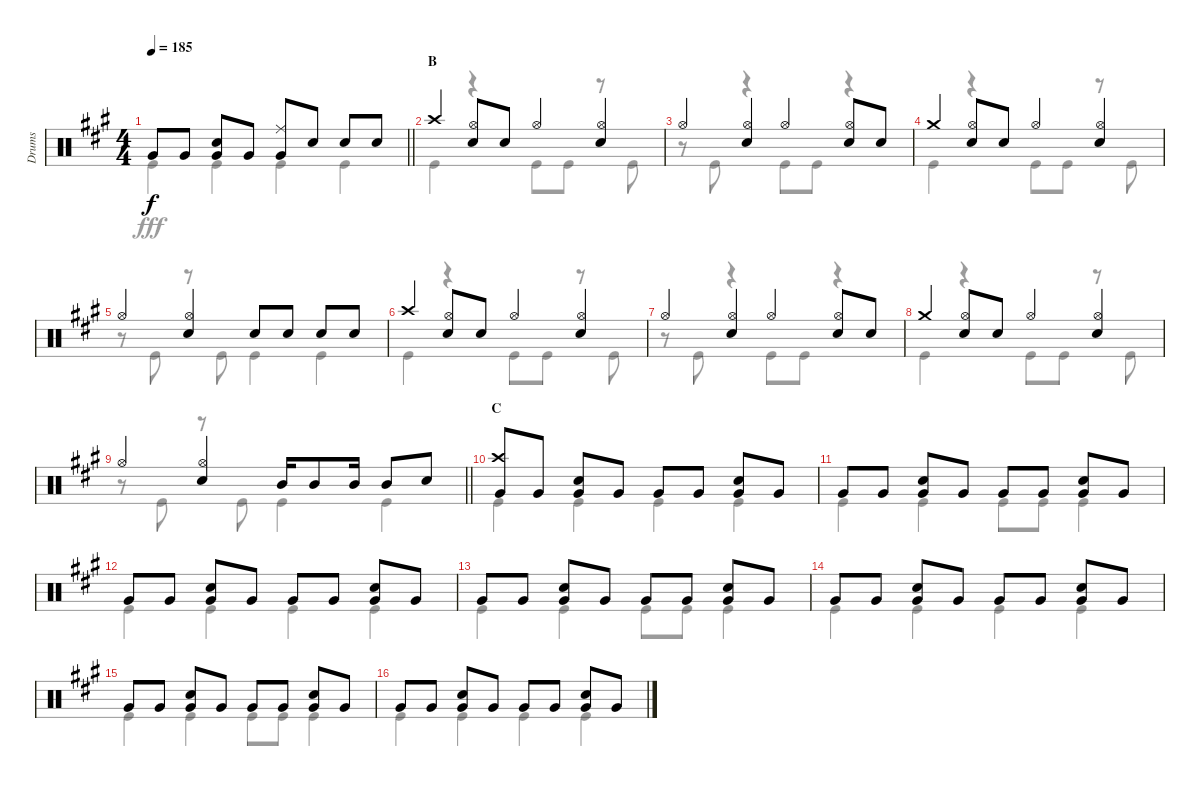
\track ("Drums" "Drums") {instrument percussion}
\staff {score}
\articulation defaults
\voice
\ts (4 4)
\tempo 185
\clef neutral
\barLineRight lightlight
\ks a "Very Low Tom (hit)".8{dy f} "Very Low Tom (hit)".8
("Snare (hit) 2" "Very Low Tom (hit)").8 "Very Low Tom (hit)".8 ("Ride (middle)" "Very Low Tom (hit)").8 "Snare (hit) 2".8 "Snare (hit) 2".8 "Snare (hit) 2".8 |
\section ("" "B")
"Crash high (hit)".4 ("Hi-Hat (open)" "Snare (hit) 2").8 "Snare (hit) 2".8 "Hi-Hat (open)".4 ("Hi-Hat (open)" "Snare (hit) 2").4 |
"Hi-Hat (open)".4 ("Hi-Hat (open)" "Snare (hit) 2").4 "Hi-Hat (open)".4 ("Hi-Hat (open)" "Snare (hit) 2").8 "Snare (hit) 2".8 |
"Crash medium (hit)".4 ("Hi-Hat (open)" "Snare (hit) 2").8 "Snare (hit) 2".8 "Hi-Hat (open)".4 ("Hi-Hat (open)" "Snare (hit) 2").4 |
"Hi-Hat (open)".4 ("Hi-Hat (open)" "Snare (hit) 2").4 "Snare (hit) 2".8 "Snare (hit) 2".8 "Snare (hit) 2".8 "Snare (hit) 2".8 |
"Crash high (hit)".4 ("Hi-Hat (open)" "Snare (hit) 2").8 "Snare (hit) 2".8 "Hi-Hat (open)".4 ("Hi-Hat (open)" "Snare (hit) 2").4 |
"Hi-Hat (open)".4 ("Hi-Hat (open)" "Snare (hit) 2").4 "Hi-Hat (open)".4 ("Hi-Hat (open)" "Snare (hit) 2").8 "Snare (hit) 2".8 |
"Crash medium (hit)".4 ("Hi-Hat (open)" "Snare (hit) 2").8 "Snare (hit) 2".8 "Hi-Hat (open)".4 ("Hi-Hat (open)" "Snare (hit) 2").4 |
\barLineRight lightlight "Hi-Hat (open)".4
("Hi-Hat (open)" "Snare (hit) 2").4 "Mid Tom (hit)".16 "Mid Tom (hit)".8 "Mid Tom (hit)".16 "Mid Tom (hit)".8 "Snare (hit) 2".8 |
\section ("" "C")
("Crash high (hit)" "Very Low Tom (hit)").8 "Very Low Tom (hit)".8 ("Snare (hit) 2" "Very Low Tom (hit)").8 "Very Low Tom (hit)".8 "Very Low Tom (hit)".8 "Very Low Tom (hit)".8 ("Snare (hit) 2" "Very Low Tom (hit)").8 "Very Low Tom (hit)".8 |
"Very Low Tom (hit)".8 "Very Low Tom (hit)".8 ("Snare (hit) 2" "Very Low Tom (hit)").8 "Very Low Tom (hit)".8 "Very Low Tom (hit)".8 "Very Low Tom (hit)".8 ("Snare (hit) 2" "Very Low Tom (hit)").8 "Very Low Tom (hit)".8 |
"Very Low Tom (hit)".8 "Very Low Tom (hit)".8 ("Snare (hit) 2" "Very Low Tom (hit)").8 "Very Low Tom (hit)".8 "Very Low Tom (hit)".8 "Very Low Tom (hit)".8 ("Snare (hit) 2" "Very Low Tom (hit)").8 "Very Low Tom (hit)".8 |
"Very Low Tom (hit)".8 "Very Low Tom (hit)".8 ("Snare (hit) 2" "Very Low Tom (hit)").8 "Very Low Tom (hit)".8 "Very Low Tom (hit)".8 "Very Low Tom (hit)".8 ("Snare (hit) 2" "Very Low Tom (hit)").8 "Very Low Tom (hit)".8 |
"Very Low Tom (hit)".8 "Very Low Tom (hit)".8 ("Snare (hit) 2" "Very Low Tom (hit)").8 "Very Low Tom (hit)".8 "Very Low Tom (hit)".8 "Very Low Tom (hit)".8 ("Snare (hit) 2" "Very Low Tom (hit)").8 "Very Low Tom (hit)".8 |
"Very Low Tom (hit)".8 "Very Low Tom (hit)".8 ("Snare (hit) 2" "Very Low Tom (hit)").8 "Very Low Tom (hit)".8 "Very Low Tom (hit)".8 "Very Low Tom (hit)".8 ("Snare (hit) 2" "Very Low Tom (hit)").8 "Very Low Tom (hit)".8 |
"Very Low Tom (hit)".8 "Very Low Tom (hit)".8 ("Snare (hit) 2" "Very Low Tom (hit)").8 "Very Low Tom (hit)".8 "Very Low Tom (hit)".8 "Very Low Tom (hit)".8 ("Snare (hit) 2" "Very Low Tom (hit)").8 "Very Low Tom (hit)".8
\voice
\clef neutral
\ottava regular
\simile none
\barLineRight lightlight
\ks a "Kick (hit)".4{dy fff} "Kick (hit)".4 "Kick (hit)".4 "Kick (hit)".4
|
"Kick (hit)".4 r.4 "Kick (hit)".8 "Kick (hit)".8 r.8 "Kick (hit)".8 |
r.8 "Kick (hit)".8 r.4 "Kick (hit)".8 "Kick (hit)".8 r.4 |
"Kick (hit)".4 r.4 "Kick (hit)".8 "Kick (hit)".8 r.8 "Kick (hit)".8 |
r.8 "Kick (hit)".8 r.8 "Kick (hit)".8 "Kick (hit)".4 "Kick (hit)".4 |
"Kick (hit)".4 r.4 "Kick (hit)".8 "Kick (hit)".8 r.8 "Kick (hit)".8 |
r.8 "Kick (hit)".8 r.4 "Kick (hit)".8 "Kick (hit)".8 r.4 |
"Kick (hit)".4 r.4 "Kick (hit)".8 "Kick (hit)".8 r.8 "Kick (hit)".8 |
\barLineRight lightlight
r.8 "Kick (hit)".8 r.8 "Kick (hit)".8 "Kick (hit)".4 "Kick (hit)".4 |
"Kick (hit)".4 "Kick (hit)".4 "Kick (hit)".4 "Kick (hit)".4 |
"Kick (hit)".4 "Kick (hit)".4 "Kick (hit)".8 "Kick (hit)".8 "Kick (hit)".4 |
"Kick (hit)".4 "Kick (hit)".4 "Kick (hit)".4 "Kick (hit)".4 |
"Kick (hit)".4 "Kick (hit)".4 "Kick (hit)".8 "Kick (hit)".8 "Kick (hit)".4 |
"Kick (hit)".4 "Kick (hit)".4 "Kick (hit)".4 "Kick (hit)".4 |
"Kick (hit)".4 "Kick (hit)".4 "Kick (hit)".8 "Kick (hit)".8 "Kick (hit)".4 |
"Kick (hit)".4 "Kick (hit)".4 "Kick (hit)".4 "Kick (hit)".4
